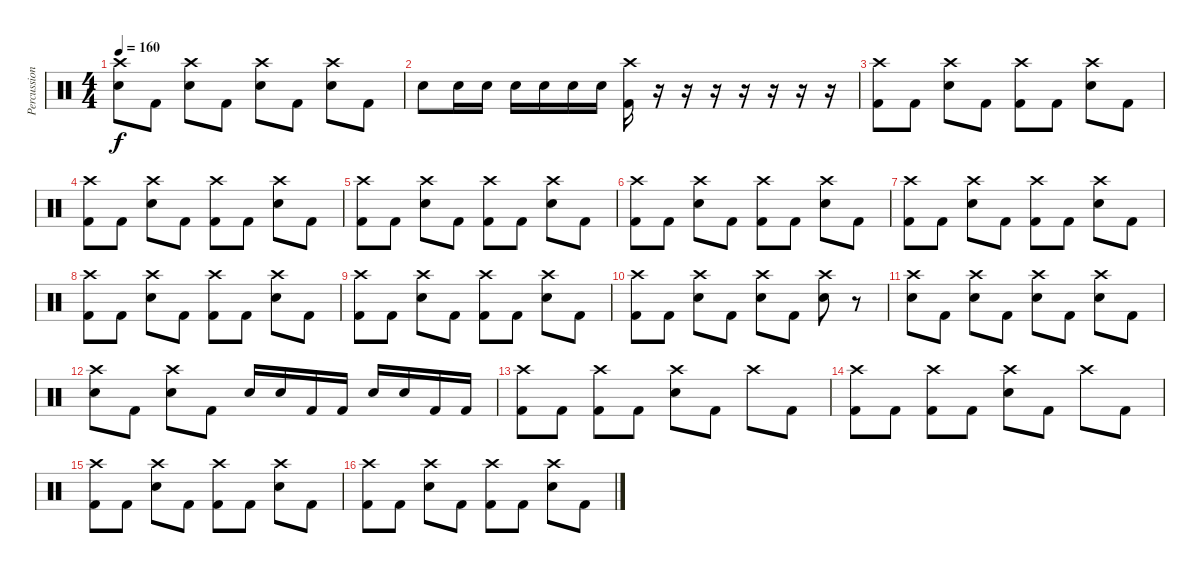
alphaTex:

\track ("Percussion" "Percussion") {instrument percussion}
\staff {score}
\articulation defaults
\ts (4 4)
\tempo 160
\clef neutral
\ks c
("Crash high (hit)" "Snare (hit) 2").8{dy f} "Kick (hit) 2".8 ("Crash high (hit)" "Snare (hit) 2").8 "Kick (hit) 2".8 ("Crash high (hit)" "Snare (hit) 2").8 "Kick (hit) 2".8 ("Crash high (hit)" "Snare (hit) 2").8 "Kick (hit) 2".8 |
"Snare (hit) 2".8 "Snare (hit) 2".16 "Snare (hit) 2".16 "Snare (hit) 2".16 "Snare (hit) 2".16 "Snare (hit) 2".16 "Snare (hit) 2".16 ("Crash high (hit)" "Kick (hit) 2").16 r.16 r.16 r.16 r.16 r.16 r.16 r.16 |
("Crash high (hit)" "Kick (hit) 2").8 "Kick (hit) 2".8 ("Crash high (hit)" "Snare (hit) 2").8 "Kick (hit) 2".8 ("Crash high (hit)" "Kick (hit) 2").8 "Kick (hit) 2".8 ("Crash high (hit)" "Snare (hit) 2").8 "Kick (hit) 2".8 |
("Crash high (hit)" "Kick (hit) 2").8 "Kick (hit) 2".8 ("Crash high (hit)" "Snare (hit) 2").8 "Kick (hit) 2".8 ("Crash high (hit)" "Kick (hit) 2").8 "Kick (hit) 2".8 ("Crash high (hit)" "Snare (hit) 2").8 "Kick (hit) 2".8 |
("Crash high (hit)" "Kick (hit) 2").8 "Kick (hit) 2".8 ("Crash high (hit)" "Snare (hit) 2").8 "Kick (hit) 2".8 ("Crash high (hit)" "Kick (hit) 2").8 "Kick (hit) 2".8 ("Crash high (hit)" "Snare (hit) 2").8 "Kick (hit) 2".8 |
("Crash high (hit)" "Kick (hit) 2").8 "Kick (hit) 2".8 ("Crash high (hit)" "Snare (hit) 2").8 "Kick (hit) 2".8 ("Crash high (hit)" "Kick (hit) 2").8 "Kick (hit) 2".8 ("Crash high (hit)" "Snare (hit) 2").8 "Kick (hit) 2".8 |
("Crash high (hit)" "Kick (hit) 2").8 "Kick (hit) 2".8 ("Crash high (hit)" "Snare (hit) 2").8 "Kick (hit) 2".8 ("Crash high (hit)" "Kick (hit) 2").8 "Kick (hit) 2".8 ("Crash high (hit)" "Snare (hit) 2").8 "Kick (hit) 2".8 |
("Crash high (hit)" "Kick (hit) 2").8 "Kick (hit) 2".8 ("Crash high (hit)" "Snare (hit) 2").8 "Kick (hit) 2".8 ("Crash high (hit)" "Kick (hit) 2").8 "Kick (hit) 2".8 ("Crash high (hit)" "Snare (hit) 2").8 "Kick (hit) 2".8 |
("Crash high (hit)" "Kick (hit) 2").8 "Kick (hit) 2".8 ("Crash high (hit)" "Snare (hit) 2").8 "Kick (hit) 2".8 ("Crash high (hit)" "Kick (hit) 2").8 "Kick (hit) 2".8 ("Crash high (hit)" "Snare (hit) 2").8 "Kick (hit) 2".8 |
("Crash high (hit)" "Kick (hit) 2").8 "Kick (hit) 2".8 ("Crash high (hit)" "Snare (hit) 2").8 "Kick (hit) 2".8 ("Crash high (hit)" "Snare (hit) 2").8 "Kick (hit) 2".8 ("Crash high (hit)" "Snare (hit) 2").8 r.8 |
("Crash high (hit)" "Snare (hit) 2").8 "Kick (hit) 2".8 ("Crash high (hit)" "Snare (hit) 2").8 "Kick (hit) 2".8 ("Crash high (hit)" "Snare (hit) 2").8 "Kick (hit) 2".8 ("Crash high (hit)" "Snare (hit) 2").8 "Kick (hit) 2".8 |
("Crash high (hit)" "Snare (hit) 2").8 "Kick (hit) 2".8 ("Crash high (hit)" "Snare (hit) 2").8 "Kick (hit) 2".8 "Snare (hit) 2".16 "Snare (hit) 2".16 "Kick (hit) 2".16 "Kick (hit) 2".16 "Snare (hit) 2".16 "Snare (hit) 2".16 "Kick (hit) 2".16 "Kick (hit) 2".16 |
("Crash high (hit)" "Kick (hit) 2").8 "Kick (hit) 2".8 ("Crash high (hit)" "Kick (hit) 2").8 "Kick (hit) 2".8 ("Crash high (hit)" "Snare (hit) 2").8 "Kick (hit) 2".8 "Crash high (hit)".8 "Kick (hit) 2".8 |
("Crash high (hit)" "Kick (hit) 2").8 "Kick (hit) 2".8 ("Crash high (hit)" "Kick (hit) 2").8 "Kick (hit) 2".8 ("Crash high (hit)" "Snare (hit) 2").8 "Kick (hit) 2".8 "Crash high (hit)".8 "Kick (hit) 2".8 |
("Crash high (hit)" "Kick (hit) 2").8 "Kick (hit) 2".8 ("Crash high (hit)" "Snare (hit) 2").8 "Kick (hit) 2".8 ("Crash high (hit)" "Kick (hit) 2").8 "Kick (hit) 2".8 ("Crash high (hit)" "Snare (hit) 2").8 "Kick (hit) 2".8 |
("Crash high (hit)" "Kick (hit) 2").8 "Kick (hit) 2".8 ("Crash high (hit)" "Snare (hit) 2").8 "Kick (hit) 2".8 ("Crash high (hit)" "Kick (hit) 2").8 "Kick (hit) 2".8 ("Crash high (hit)" "Snare (hit) 2").8 "Kick (hit) 2".8
